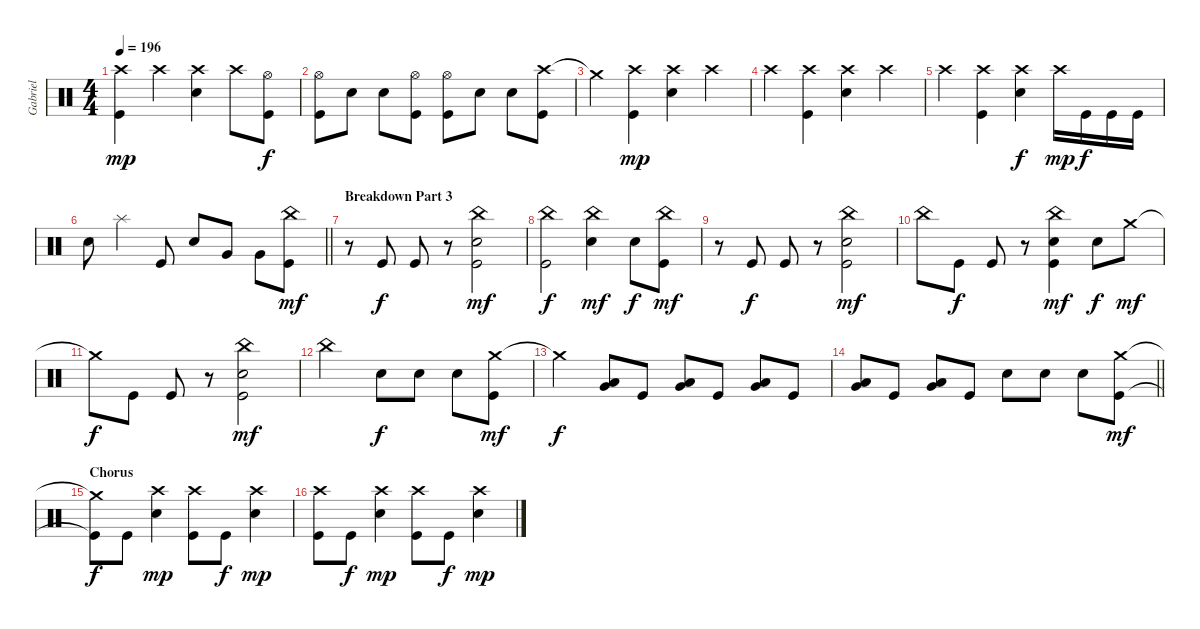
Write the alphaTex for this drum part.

\track ("Gabriel" "Gabriel") {instrument percussion}
\staff {score}
\articulation defaults
\ts (4 4)
\tempo 196
\clef neutral
\ks aminor
("Crash high (hit)" "Kick (hit)").4{dy mp} "Crash high (hit)".4 ("Crash high (hit)" "Snare (hit) 2").4 "Crash high (hit)".8 ("Hi-Hat (open)" "Kick (hit)").8{dy f} |
("Hi-Hat (open)" "Kick (hit)").8 "Snare (hit) 2".8 "Snare (hit) 2".8 ("Hi-Hat (open)" "Kick (hit)").8 ("Hi-Hat (open)" "Kick (hit)").8 "Snare (hit) 2".8 "Snare (hit) 2".8 ("Crash high (hit)" "Kick (hit)").8 |
"Crash medium (hit)"{t}.4 ("Crash high (hit)" "Kick (hit)").4{dy mp} ("Crash high (hit)" "Snare (hit) 2").4 "Crash high (hit)".4 |
"Crash high (hit)".4 ("Crash high (hit)" "Kick (hit)").4 ("Crash high (hit)" "Snare (hit) 2").4 "Crash high (hit)".4 |
"Crash high (hit)".4 ("Crash high (hit)" "Kick (hit)").4 ("Crash high (hit)" "Snare (hit) 2").4{dy f} "Crash high (hit)".16{dy mp} "Kick (hit)".16{dy f} "Kick (hit)".16 "Kick (hit)".16 |
\barLineRight lightlight "Snare (hit) 2".8 "Splash (hit)".4 "Kick (hit)".8 "Snare (hit) 2".8 "Very Low Tom (hit)".8 "Very Low Tom (hit)".8
("China (hit)" "Kick (hit)").8{dy mf} |
\section ("" "Breakdown Part 3")
r.8 "Kick (hit)".8{dy f} "Kick (hit)".8 r.8 ("China (hit)" "Snare (hit) 2" "Kick (hit)").2{dy mf} |
("China (hit)" "Kick (hit)").2{dy f} ("China (hit)" "Snare (hit) 2").4{dy mf} "Snare (hit) 2".8{dy f} ("China (hit)" "Kick (hit)").8{dy mf} |
r.8 "Kick (hit)".8{dy f} "Kick (hit)".8 r.8 ("China (hit)" "Snare (hit) 2" "Kick (hit)").2{dy mf} |
"China (hit)".8 "Kick (hit)".8{dy f} "Kick (hit)".8 r.8 ("China (hit)" "Snare (hit) 2" "Kick (hit)").4{dy mf} "Snare (hit) 2".8{dy f} "Crash medium (hit)".8{dy mf} |
"Crash medium (hit)"{t}.8{dy f} "Kick (hit)".8 "Kick (hit)".8 r.8 ("China (hit)" "Snare (hit) 2" "Kick (hit)").2{dy mf} |
"China (hit)".2 "Snare (hit) 2".8{dy f} "Snare (hit) 2".8 "Snare (hit) 2".8 ("Crash medium (hit)" "Kick (hit)").8{dy mf} |
"Crash medium (hit)"{t}.4{dy f} ("Very Low Tom (hit)" "Low Tom (hit)").8 "Kick (hit)".8 ("Very Low Tom (hit)" "Low Tom (hit)").8 "Kick (hit)".8 ("Very Low Tom (hit)" "Low Tom (hit)").8 "Kick (hit)".8 |
\barLineRight lightlight
("Very Low Tom (hit)" "Low Tom (hit)").8 "Kick (hit)".8 ("Very Low Tom (hit)" "Low Tom (hit)").8 "Kick (hit)".8 "Snare (hit) 2".8 "Snare (hit) 2".8 "Snare (hit) 2".8 ("Crash medium (hit)" "Kick (hit)").8{dy mf} |
\section ("" "Chorus")
("Crash medium (hit)"{t} "Kick (hit)"{t}).8{dy f} "Kick (hit)".8 ("Crash high (hit)" "Snare (hit) 2").4{dy mp} ("Crash high (hit)" "Kick (hit)").8 "Kick (hit)".8{dy f} ("Crash high (hit)" "Snare (hit) 2").4{dy mp} |
("Crash high (hit)" "Kick (hit)").8 "Kick (hit)".8{dy f} ("Crash high (hit)" "Snare (hit) 2").4{dy mp} ("Crash high (hit)" "Kick (hit)").8 "Kick (hit)".8{dy f} ("Crash high (hit)" "Snare (hit) 2").4{dy mp}
